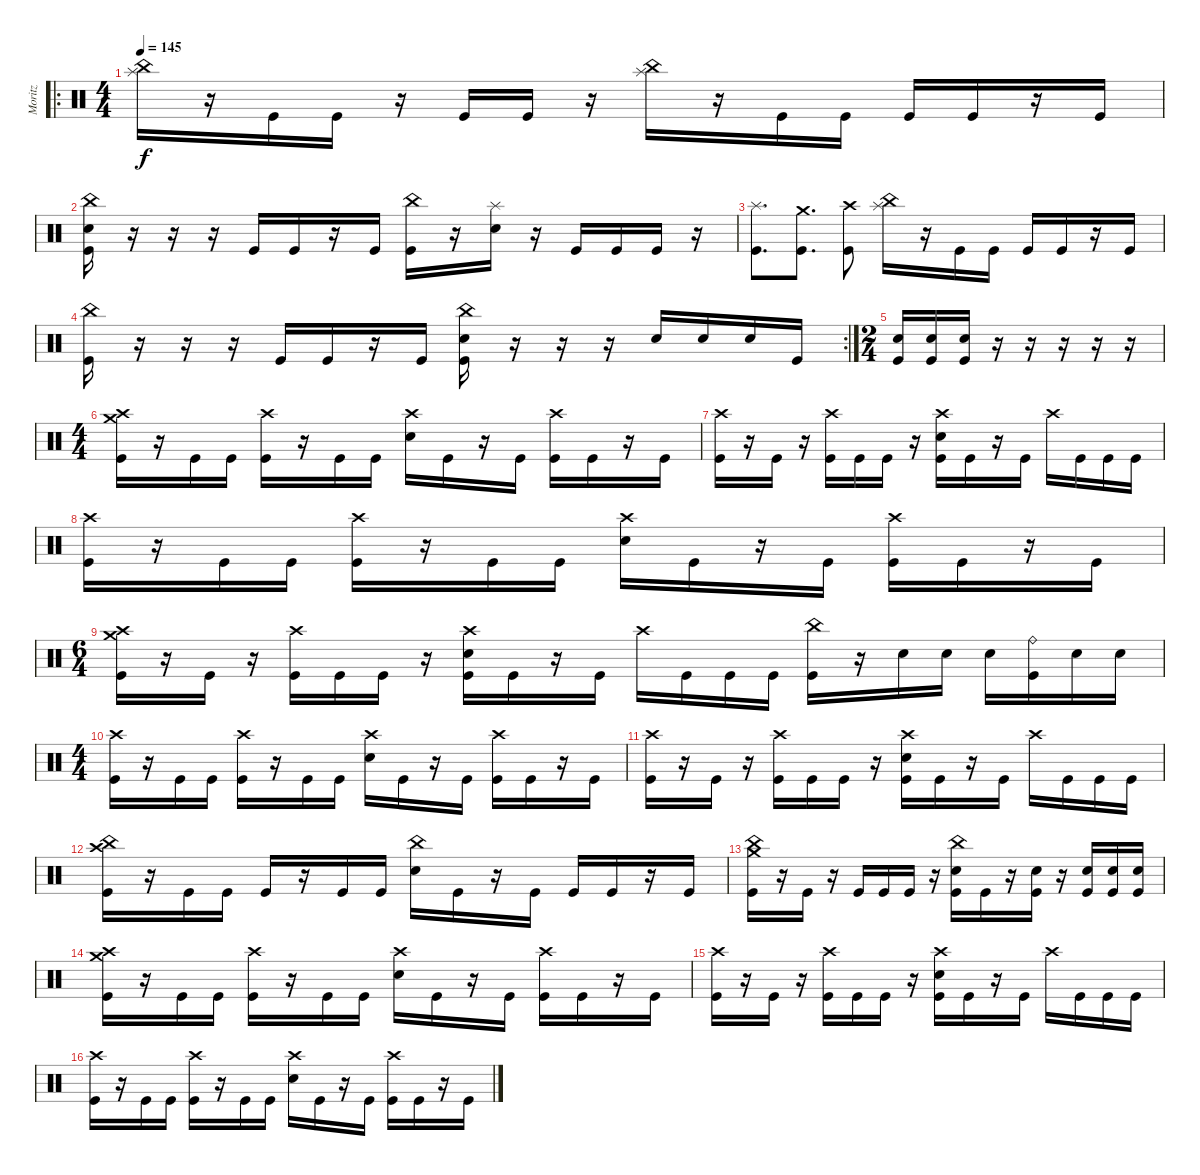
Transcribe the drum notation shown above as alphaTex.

\track ("Moritz" "Moritz") {instrument percussion}
\staff {score}
\articulation defaults
\ro
\ts (4 4)
\tempo 145
\clef neutral
\ks c
("Splash (hit)" "China (hit)").16{dy f} r.16 "Kick (hit)".16 "Kick (hit)".16 r.16 "Kick (hit)".16 "Kick (hit)".16 r.16 ("Splash (hit)" "China (hit)").16 r.16 "Kick (hit)".16 "Kick (hit)".16 "Kick (hit)".16 "Kick (hit)".16 r.16 "Kick (hit)".16 |
("China (hit)" "Snare (hit) 2" "Kick (hit)").16 r.16 r.16 r.16 "Kick (hit)".16 "Kick (hit)".16 r.16 "Kick (hit)".16 ("China (hit)" "Kick (hit)").16 r.16 ("Splash (hit)" "Snare (hit) 2").16 r.16 "Kick (hit)".16 "Kick (hit)".16 "Kick (hit)".16 r.16 |
("Splash (hit)" "Kick (hit)").8{d} ("Crash medium (hit)" "Kick (hit)").8{d} ("Crash high (hit)" "Kick (hit)").8 ("Splash (hit)" "China (hit)").16 r.16 "Kick (hit)".16 "Kick (hit)".16 "Kick (hit)".16 "Kick (hit)".16 r.16 "Kick (hit)".16 |
\rc 2
("China (hit)" "Kick (hit)").16 r.16 r.16 r.16 "Kick (hit)".16 "Kick (hit)".16 r.16 "Kick (hit)".16 ("China (hit)" "Snare (hit) 2" "Kick (hit)").16 r.16 r.16 r.16 "Snare (hit) 2".16 "Snare (hit) 2".16 "Snare (hit) 2".16 "Kick (hit)".16 |
\ts (2 4)
("Snare (hit) 2" "Kick (hit)").16 ("Snare (hit) 2" "Kick (hit)").16 ("Snare (hit) 2" "Kick (hit)").16 r.16 r.16 r.16 r.16 r.16 |
\ts (4 4)
("Crash medium (hit)" "Crash high (hit)" "Kick (hit)").16 r.16 "Kick (hit)".16 "Kick (hit)".16 ("Crash high (hit)" "Kick (hit)").16 r.16 "Kick (hit)".16 "Kick (hit)".16 ("Crash high (hit)" "Snare (hit) 2").16 "Kick (hit)".16 r.16 "Kick (hit)".16 ("Crash high (hit)" "Kick (hit)").16 "Kick (hit)".16 r.16 "Kick (hit)".16 |
("Crash high (hit)" "Kick (hit)").16 r.16 "Kick (hit)".16 r.16 ("Crash high (hit)" "Kick (hit)").16 "Kick (hit)".16 "Kick (hit)".16 r.16 ("Crash high (hit)" "Snare (hit) 2" "Kick (hit)").16 "Kick (hit)".16 r.16 "Kick (hit)".16 "Crash high (hit)".16 "Kick (hit)".16 "Kick (hit)".16 "Kick (hit)".16 |
("Crash high (hit)" "Kick (hit)").16 r.16 "Kick (hit)".16 "Kick (hit)".16 ("Crash high (hit)" "Kick (hit)").16 r.16 "Kick (hit)".16 "Kick (hit)".16 ("Crash high (hit)" "Snare (hit) 2").16 "Kick (hit)".16 r.16 "Kick (hit)".16 ("Crash high (hit)" "Kick (hit)").16 "Kick (hit)".16 r.16 "Kick (hit)".16 |
\ts (6 4)
("Crash medium (hit)" "Crash high (hit)" "Kick (hit)").16 r.16 "Kick (hit)".16 r.16 ("Crash high (hit)" "Kick (hit)").16 "Kick (hit)".16 "Kick (hit)".16 r.16 ("Crash high (hit)" "Snare (hit) 2" "Kick (hit)").16 "Kick (hit)".16 r.16 "Kick (hit)".16 "Crash high (hit)".16 "Kick (hit)".16 "Kick (hit)".16 "Kick (hit)".16 ("China (hit)" "Kick (hit)").16 r.16 "Snare (hit) 2".16 "Snare (hit) 2".16 "Snare (hit) 2".16 ("Ride (bell)" "Kick (hit)").16 "Snare (hit) 2".16 "Snare (hit) 2".16 |
\ts (4 4)
("Crash high (hit)" "Kick (hit)").16 r.16 "Kick (hit)".16 "Kick (hit)".16 ("Crash high (hit)" "Kick (hit)").16 r.16 "Kick (hit)".16 "Kick (hit)".16 ("Crash high (hit)" "Snare (hit) 2").16 "Kick (hit)".16 r.16 "Kick (hit)".16 ("Crash high (hit)" "Kick (hit)").16 "Kick (hit)".16 r.16 "Kick (hit)".16 |
("Crash high (hit)" "Kick (hit)").16 r.16 "Kick (hit)".16 r.16 ("Crash high (hit)" "Kick (hit)").16 "Kick (hit)".16 "Kick (hit)".16 r.16 ("Crash high (hit)" "Snare (hit) 2" "Kick (hit)").16 "Kick (hit)".16 r.16 "Kick (hit)".16 "Crash high (hit)".16 "Kick (hit)".16 "Kick (hit)".16 "Kick (hit)".16 |
("China (hit)" "Crash high (hit)" "Kick (hit)").16 r.16 "Kick (hit)".16 "Kick (hit)".16 "Kick (hit)".16 r.16 "Kick (hit)".16 "Kick (hit)".16 ("China (hit)" "Snare (hit) 2").16 "Kick (hit)".16 r.16 "Kick (hit)".16 "Kick (hit)".16 "Kick (hit)".16 r.16 "Kick (hit)".16 |
("Crash medium (hit)" "China (hit)" "Kick (hit)").16 r.16 "Kick (hit)".16 r.16 "Kick (hit)".16 "Kick (hit)".16 "Kick (hit)".16 r.16 ("China (hit)" "Snare (hit) 2" "Kick (hit)").16 "Kick (hit)".16 r.16 ("Snare (hit) 2" "Kick (hit)").16 r.16 ("Snare (hit) 2" "Kick (hit)").16 ("Snare (hit) 2" "Kick (hit)").16 ("Snare (hit) 2" "Kick (hit)").16 |
("Crash medium (hit)" "Crash high (hit)" "Kick (hit)").16 r.16 "Kick (hit)".16 "Kick (hit)".16 ("Crash high (hit)" "Kick (hit)").16 r.16 "Kick (hit)".16 "Kick (hit)".16 ("Crash high (hit)" "Snare (hit) 2").16 "Kick (hit)".16 r.16 "Kick (hit)".16 ("Crash high (hit)" "Kick (hit)").16 "Kick (hit)".16 r.16 "Kick (hit)".16 |
("Crash high (hit)" "Kick (hit)").16 r.16 "Kick (hit)".16 r.16 ("Crash high (hit)" "Kick (hit)").16 "Kick (hit)".16 "Kick (hit)".16 r.16 ("Crash high (hit)" "Snare (hit) 2" "Kick (hit)").16 "Kick (hit)".16 r.16 "Kick (hit)".16 "Crash high (hit)".16 "Kick (hit)".16 "Kick (hit)".16 "Kick (hit)".16 |
("Crash high (hit)" "Kick (hit)").16 r.16 "Kick (hit)".16 "Kick (hit)".16 ("Crash high (hit)" "Kick (hit)").16 r.16 "Kick (hit)".16 "Kick (hit)".16 ("Crash high (hit)" "Snare (hit) 2").16 "Kick (hit)".16 r.16 "Kick (hit)".16 ("Crash high (hit)" "Kick (hit)").16 "Kick (hit)".16 r.16 "Kick (hit)".16
